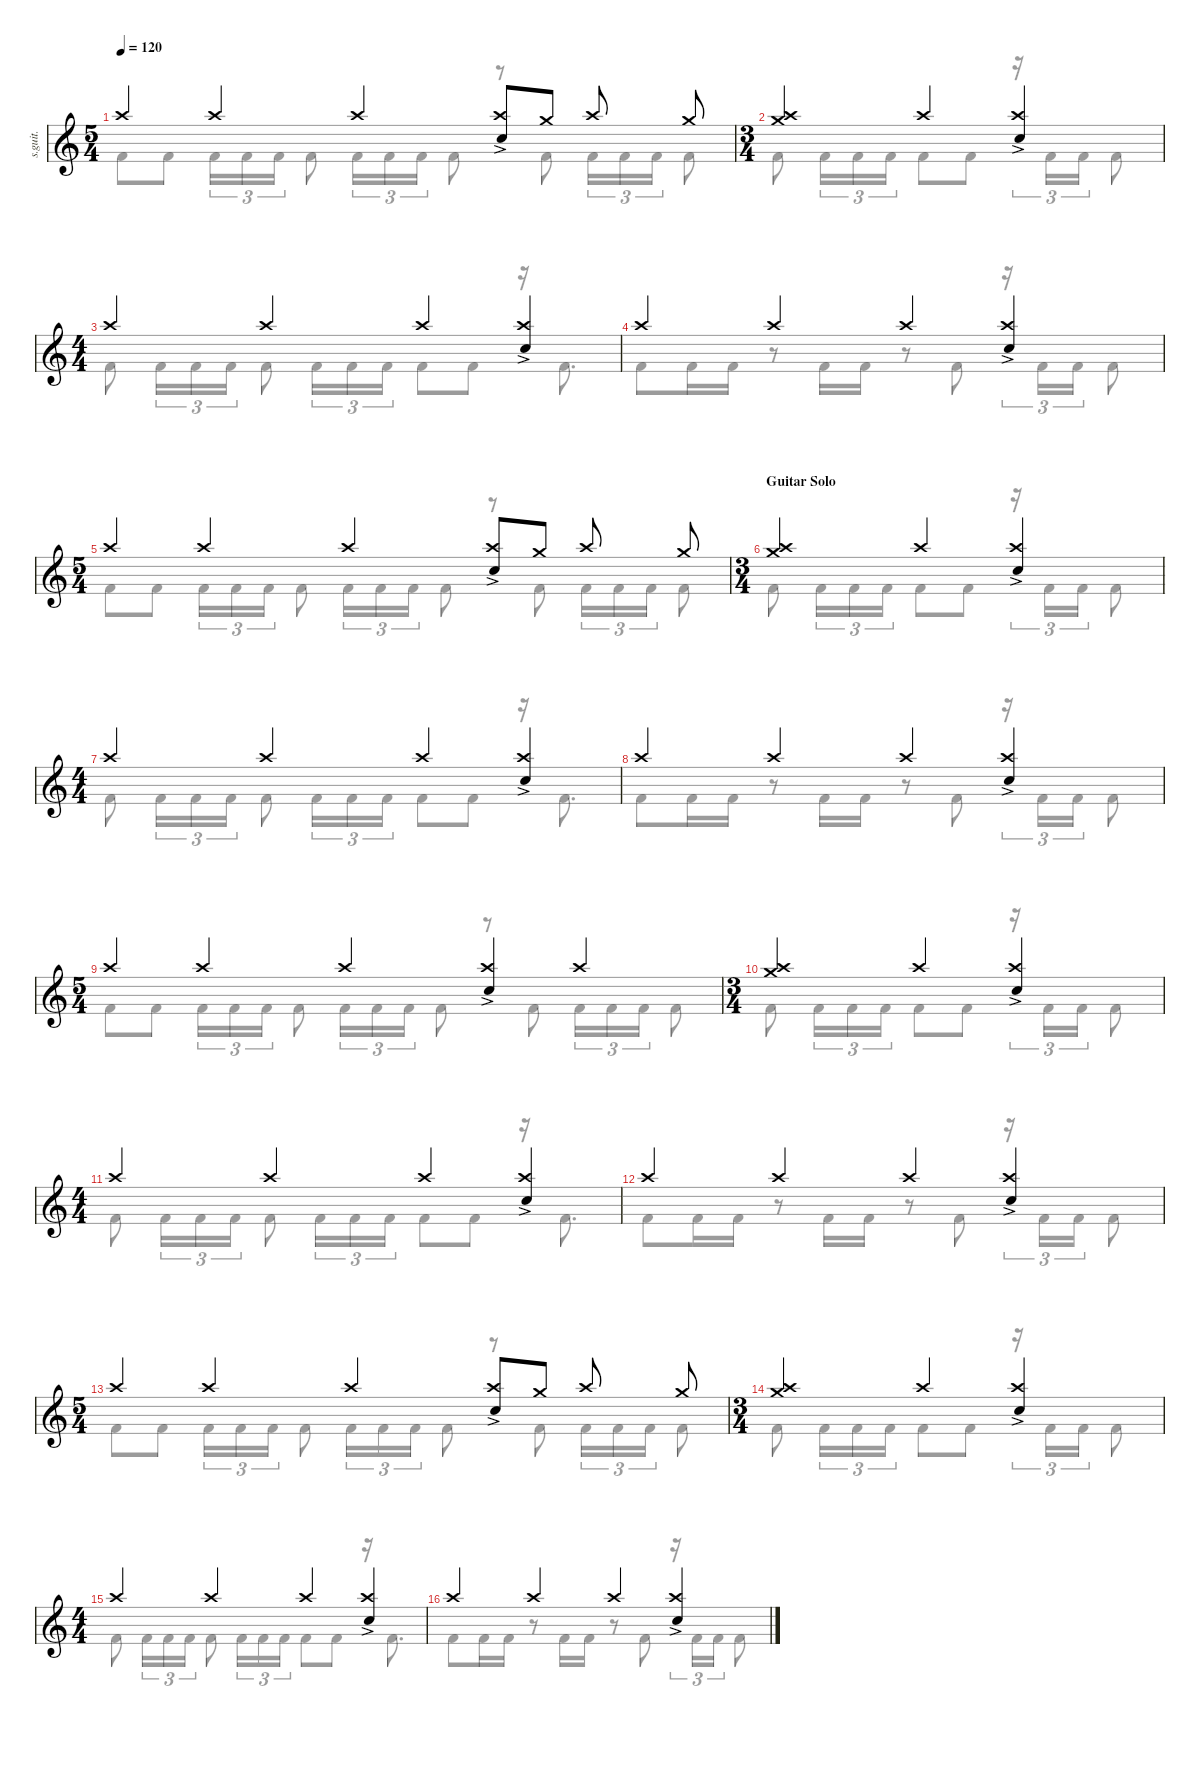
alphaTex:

\defaultSystemsLayout 4
\hideDynamics
\bracketExtendMode nobrackets
\track ("Percussion" "s.guit.") {instrument percussion}
\staff {score}
\articulation defaults
\voice
\ts (5 4)
\beaming (8 2 2 2 2)
\tempo 120
\clef g2
\ks c "Crash high (hit)".4{lyrics (0 "") lyrics (1 "") lyrics (2 "") lyrics (3 "") lyrics (4 "") dy f} "Crash high (hit)".4{lyrics (0 "") lyrics (1 "") lyrics (2 "") lyrics (3 "") lyrics (4 "")} "Crash high (hit)".4{lyrics (0 "") lyrics (1 "") lyrics (2 "") lyrics (3 "") lyrics (4 "")}
("Snare (hit) 2"{ac} "Crash high (hit)").8{lyrics (0 "") lyrics (1 "") lyrics (2 "") lyrics (3 "") lyrics (4 "")} "Crash medium (hit)".8{lyrics (0 "") lyrics (1 "") lyrics (2 "") lyrics (3 "") lyrics (4 "")} "Crash high (hit)".8{lyrics (0 "") lyrics (1 "") lyrics (2 "") lyrics (3 "") lyrics (4 "")} "Crash medium (hit)".8{lyrics (0 "") lyrics (1 "") lyrics (2 "") lyrics (3 "") lyrics (4 "")} |
\ts (3 4)
\beaming (8 2 2 2 2)
("Crash high (hit)" "Crash medium (hit)").4{lyrics (0 "") lyrics (1 "") lyrics (2 "") lyrics (3 "") lyrics (4 "")} "Crash high (hit)".4{lyrics (0 "") lyrics (1 "") lyrics (2 "") lyrics (3 "") lyrics (4 "")} ("Snare (hit) 2"{ac} "Crash high (hit)").4{lyrics (0 "") lyrics (1 "") lyrics (2 "") lyrics (3 "") lyrics (4 "")} |
\ts (4 4)
\beaming (8 2 2 2 2)
"Crash high (hit)".4{lyrics (0 "") lyrics (1 "") lyrics (2 "") lyrics (3 "") lyrics (4 "")} "Crash high (hit)".4{lyrics (0 "") lyrics (1 "") lyrics (2 "") lyrics (3 "") lyrics (4 "")} "Crash high (hit)".4{lyrics (0 "") lyrics (1 "") lyrics (2 "") lyrics (3 "") lyrics (4 "")} ("Snare (hit) 2"{ac} "Crash high (hit)").4{lyrics (0 "") lyrics (1 "") lyrics (2 "") lyrics (3 "") lyrics (4 "")} |
"Crash high (hit)".4{lyrics (0 "") lyrics (1 "") lyrics (2 "") lyrics (3 "") lyrics (4 "")} "Crash high (hit)".4{lyrics (0 "") lyrics (1 "") lyrics (2 "") lyrics (3 "") lyrics (4 "")} "Crash high (hit)".4{lyrics (0 "") lyrics (1 "") lyrics (2 "") lyrics (3 "") lyrics (4 "")} ("Snare (hit) 2"{ac} "Crash high (hit)").4{lyrics (0 "") lyrics (1 "") lyrics (2 "") lyrics (3 "") lyrics (4 "")} |
\ts (5 4)
\beaming (8 2 2 2 2)
"Crash high (hit)".4{lyrics (0 "") lyrics (1 "") lyrics (2 "") lyrics (3 "") lyrics (4 "")} "Crash high (hit)".4{lyrics (0 "") lyrics (1 "") lyrics (2 "") lyrics (3 "") lyrics (4 "")} "Crash high (hit)".4{lyrics (0 "") lyrics (1 "") lyrics (2 "") lyrics (3 "") lyrics (4 "")} ("Snare (hit) 2"{ac} "Crash high (hit)").8{lyrics (0 "") lyrics (1 "") lyrics (2 "") lyrics (3 "") lyrics (4 "")} "Crash medium (hit)".8{lyrics (0 "") lyrics (1 "") lyrics (2 "") lyrics (3 "") lyrics (4 "")} "Crash high (hit)".8{lyrics (0 "") lyrics (1 "") lyrics (2 "") lyrics (3 "") lyrics (4 "")} "Crash medium (hit)".8{lyrics (0 "") lyrics (1 "") lyrics (2 "") lyrics (3 "") lyrics (4 "")} |
\ts (3 4)
\beaming (8 2 2 2 2)
\section ("" "Guitar Solo")
("Crash high (hit)" "Crash medium (hit)").4{lyrics (0 "") lyrics (1 "") lyrics (2 "") lyrics (3 "") lyrics (4 "")} "Crash high (hit)".4{lyrics (0 "") lyrics (1 "") lyrics (2 "") lyrics (3 "") lyrics (4 "")} ("Snare (hit) 2"{ac} "Crash high (hit)").4{lyrics (0 "") lyrics (1 "") lyrics (2 "") lyrics (3 "") lyrics (4 "")} |
\ts (4 4)
\beaming (8 2 2 2 2)
"Crash high (hit)".4{lyrics (0 "") lyrics (1 "") lyrics (2 "") lyrics (3 "") lyrics (4 "")} "Crash high (hit)".4{lyrics (0 "") lyrics (1 "") lyrics (2 "") lyrics (3 "") lyrics (4 "")} "Crash high (hit)".4{lyrics (0 "") lyrics (1 "") lyrics (2 "") lyrics (3 "") lyrics (4 "")} ("Snare (hit) 2"{ac} "Crash high (hit)").4{lyrics (0 "") lyrics (1 "") lyrics (2 "") lyrics (3 "") lyrics (4 "")} |
"Crash high (hit)".4{lyrics (0 "") lyrics (1 "") lyrics (2 "") lyrics (3 "") lyrics (4 "")} "Crash high (hit)".4{lyrics (0 "") lyrics (1 "") lyrics (2 "") lyrics (3 "") lyrics (4 "")} "Crash high (hit)".4{lyrics (0 "") lyrics (1 "") lyrics (2 "") lyrics (3 "") lyrics (4 "")} ("Snare (hit) 2"{ac} "Crash high (hit)").4{lyrics (0 "") lyrics (1 "") lyrics (2 "") lyrics (3 "") lyrics (4 "")} |
\ts (5 4)
\beaming (8 2 2 2 2)
"Crash high (hit)".4{lyrics (0 "") lyrics (1 "") lyrics (2 "") lyrics (3 "") lyrics (4 "")} "Crash high (hit)".4{lyrics (0 "") lyrics (1 "") lyrics (2 "") lyrics (3 "") lyrics (4 "")} "Crash high (hit)".4{lyrics (0 "") lyrics (1 "") lyrics (2 "") lyrics (3 "") lyrics (4 "")} ("Snare (hit) 2"{ac} "Crash high (hit)").4{lyrics (0 "") lyrics (1 "") lyrics (2 "") lyrics (3 "") lyrics (4 "")} "Crash high (hit)".4{lyrics (0 "") lyrics (1 "") lyrics (2 "") lyrics (3 "") lyrics (4 "")} |
\ts (3 4)
\beaming (8 2 2 2 2)
("Crash high (hit)" "Crash medium (hit)").4{lyrics (0 "") lyrics (1 "") lyrics (2 "") lyrics (3 "") lyrics (4 "")} "Crash high (hit)".4{lyrics (0 "") lyrics (1 "") lyrics (2 "") lyrics (3 "") lyrics (4 "")} ("Snare (hit) 2"{ac} "Crash high (hit)").4{lyrics (0 "") lyrics (1 "") lyrics (2 "") lyrics (3 "") lyrics (4 "")} |
\ts (4 4)
\beaming (8 2 2 2 2)
"Crash high (hit)".4{lyrics (0 "") lyrics (1 "") lyrics (2 "") lyrics (3 "") lyrics (4 "")} "Crash high (hit)".4{lyrics (0 "") lyrics (1 "") lyrics (2 "") lyrics (3 "") lyrics (4 "")} "Crash high (hit)".4{lyrics (0 "") lyrics (1 "") lyrics (2 "") lyrics (3 "") lyrics (4 "")} ("Snare (hit) 2"{ac} "Crash high (hit)").4{lyrics (0 "") lyrics (1 "") lyrics (2 "") lyrics (3 "") lyrics (4 "")} |
"Crash high (hit)".4{lyrics (0 "") lyrics (1 "") lyrics (2 "") lyrics (3 "") lyrics (4 "")} "Crash high (hit)".4{lyrics (0 "") lyrics (1 "") lyrics (2 "") lyrics (3 "") lyrics (4 "")} "Crash high (hit)".4{lyrics (0 "") lyrics (1 "") lyrics (2 "") lyrics (3 "") lyrics (4 "")} ("Snare (hit) 2"{ac} "Crash high (hit)").4{lyrics (0 "") lyrics (1 "") lyrics (2 "") lyrics (3 "") lyrics (4 "")} |
\ts (5 4)
\beaming (8 2 2 2 2)
"Crash high (hit)".4{lyrics (0 "") lyrics (1 "") lyrics (2 "") lyrics (3 "") lyrics (4 "")} "Crash high (hit)".4{lyrics (0 "") lyrics (1 "") lyrics (2 "") lyrics (3 "") lyrics (4 "")} "Crash high (hit)".4{lyrics (0 "") lyrics (1 "") lyrics (2 "") lyrics (3 "") lyrics (4 "")} ("Snare (hit) 2"{ac} "Crash high (hit)").8{lyrics (0 "") lyrics (1 "") lyrics (2 "") lyrics (3 "") lyrics (4 "")} "Crash medium (hit)".8{lyrics (0 "") lyrics (1 "") lyrics (2 "") lyrics (3 "") lyrics (4 "")} "Crash high (hit)".8{lyrics (0 "") lyrics (1 "") lyrics (2 "") lyrics (3 "") lyrics (4 "")} "Crash medium (hit)".8{lyrics (0 "") lyrics (1 "") lyrics (2 "") lyrics (3 "") lyrics (4 "")} |
\ts (3 4)
\beaming (8 2 2 2 2)
("Crash high (hit)" "Crash medium (hit)").4{lyrics (0 "") lyrics (1 "") lyrics (2 "") lyrics (3 "") lyrics (4 "")} "Crash high (hit)".4{lyrics (0 "") lyrics (1 "") lyrics (2 "") lyrics (3 "") lyrics (4 "")} ("Snare (hit) 2"{ac} "Crash high (hit)").4{lyrics (0 "") lyrics (1 "") lyrics (2 "") lyrics (3 "") lyrics (4 "")} |
\ts (4 4)
\beaming (8 2 2 2 2)
"Crash high (hit)".4{lyrics (0 "") lyrics (1 "") lyrics (2 "") lyrics (3 "") lyrics (4 "")} "Crash high (hit)".4{lyrics (0 "") lyrics (1 "") lyrics (2 "") lyrics (3 "") lyrics (4 "")} "Crash high (hit)".4{lyrics (0 "") lyrics (1 "") lyrics (2 "") lyrics (3 "") lyrics (4 "")} ("Snare (hit) 2"{ac} "Crash high (hit)").4{lyrics (0 "") lyrics (1 "") lyrics (2 "") lyrics (3 "") lyrics (4 "")} |
"Crash high (hit)".4{lyrics (0 "") lyrics (1 "") lyrics (2 "") lyrics (3 "") lyrics (4 "")} "Crash high (hit)".4{lyrics (0 "") lyrics (1 "") lyrics (2 "") lyrics (3 "") lyrics (4 "")} "Crash high (hit)".4{lyrics (0 "") lyrics (1 "") lyrics (2 "") lyrics (3 "") lyrics (4 "")} ("Snare (hit) 2"{ac} "Crash high (hit)").4{lyrics (0 "") lyrics (1 "") lyrics (2 "") lyrics (3 "") lyrics (4 "")}
\voice
\clef g2
\ottava regular
\simile none
\ks c "Kick (hit) 2".8{lyrics (0 "") lyrics (1 "") lyrics (2 "") lyrics (3 "") lyrics (4 "") dy f} "Kick (hit) 2".8{lyrics (0 "") lyrics (1 "") lyrics (2 "") lyrics (3 "") lyrics (4 "")} "Kick (hit) 2".16{tu (3 2) lyrics (0 "") lyrics (1 "") lyrics (2 "") lyrics (3 "") lyrics (4 "")} "Kick (hit) 2".16{tu (3 2) lyrics (0 "") lyrics (1 "") lyrics (2 "") lyrics (3 "") lyrics (4 "")} "Kick (hit) 2".16{tu (3 2) lyrics (0 "") lyrics (1 "") lyrics (2 "") lyrics (3 "") lyrics (4 "")} "Kick (hit) 2".8{lyrics (0 "") lyrics (1 "") lyrics (2 "") lyrics (3 "") lyrics (4 "")} "Kick (hit) 2".16{tu (3 2) lyrics (0 "") lyrics (1 "") lyrics (2 "") lyrics (3 "") lyrics (4 "")} "Kick (hit) 2".16{tu (3 2) lyrics (0 "") lyrics (1 "") lyrics (2 "") lyrics (3 "") lyrics (4 "")} "Kick (hit) 2".16{tu (3 2) lyrics (0 "") lyrics (1 "") lyrics (2 "") lyrics (3 "") lyrics (4 "")} "Kick (hit) 2".8{lyrics (0 "") lyrics (1 "") lyrics (2 "") lyrics (3 "") lyrics (4 "")}
r.8 "Kick (hit) 2".8{lyrics (0 "") lyrics (1 "") lyrics (2 "") lyrics (3 "") lyrics (4 "")} "Kick (hit) 2".16{tu (3 2) lyrics (0 "") lyrics (1 "") lyrics (2 "") lyrics (3 "") lyrics (4 "")} "Kick (hit) 2".16{tu (3 2) lyrics (0 "") lyrics (1 "") lyrics (2 "") lyrics (3 "") lyrics (4 "")} "Kick (hit) 2".16{tu (3 2) lyrics (0 "") lyrics (1 "") lyrics (2 "") lyrics (3 "") lyrics (4 "")} "Kick (hit) 2".8{lyrics (0 "") lyrics (1 "") lyrics (2 "") lyrics (3 "") lyrics (4 "")} |
"Kick (hit) 2".8{lyrics (0 "") lyrics (1 "") lyrics (2 "") lyrics (3 "") lyrics (4 "")} "Kick (hit) 2".16{tu (3 2) lyrics (0 "") lyrics (1 "") lyrics (2 "") lyrics (3 "") lyrics (4 "")} "Kick (hit) 2".16{tu (3 2) lyrics (0 "") lyrics (1 "") lyrics (2 "") lyrics (3 "") lyrics (4 "")} "Kick (hit) 2".16{tu (3 2) lyrics (0 "") lyrics (1 "") lyrics (2 "") lyrics (3 "") lyrics (4 "")} "Kick (hit) 2".8{lyrics (0 "") lyrics (1 "") lyrics (2 "") lyrics (3 "") lyrics (4 "")} "Kick (hit) 2".8{lyrics (0 "") lyrics (1 "") lyrics (2 "") lyrics (3 "") lyrics (4 "")} r.16{tu (3 2)} "Kick (hit) 2".16{tu (3 2) lyrics (0 "") lyrics (1 "") lyrics (2 "") lyrics (3 "") lyrics (4 "")} "Kick (hit) 2".16{tu (3 2) lyrics (0 "") lyrics (1 "") lyrics (2 "") lyrics (3 "") lyrics (4 "")} "Kick (hit) 2".8{lyrics (0 "") lyrics (1 "") lyrics (2 "") lyrics (3 "") lyrics (4 "")} |
"Kick (hit) 2".8{lyrics (0 "") lyrics (1 "") lyrics (2 "") lyrics (3 "") lyrics (4 "")} "Kick (hit) 2".16{tu (3 2) lyrics (0 "") lyrics (1 "") lyrics (2 "") lyrics (3 "") lyrics (4 "")} "Kick (hit) 2".16{tu (3 2) lyrics (0 "") lyrics (1 "") lyrics (2 "") lyrics (3 "") lyrics (4 "")} "Kick (hit) 2".16{tu (3 2) lyrics (0 "") lyrics (1 "") lyrics (2 "") lyrics (3 "") lyrics (4 "")} "Kick (hit) 2".8{lyrics (0 "") lyrics (1 "") lyrics (2 "") lyrics (3 "") lyrics (4 "")} "Kick (hit) 2".16{tu (3 2) lyrics (0 "") lyrics (1 "") lyrics (2 "") lyrics (3 "") lyrics (4 "")} "Kick (hit) 2".16{tu (3 2) lyrics (0 "") lyrics (1 "") lyrics (2 "") lyrics (3 "") lyrics (4 "")} "Kick (hit) 2".16{tu (3 2) lyrics (0 "") lyrics (1 "") lyrics (2 "") lyrics (3 "") lyrics (4 "")} "Kick (hit) 2".8{lyrics (0 "") lyrics (1 "") lyrics (2 "") lyrics (3 "") lyrics (4 "")} "Kick (hit) 2".8{lyrics (0 "") lyrics (1 "") lyrics (2 "") lyrics (3 "") lyrics (4 "")} r.16 "Kick (hit) 2".8{d lyrics (0 "") lyrics (1 "") lyrics (2 "") lyrics (3 "") lyrics (4 "")} |
"Kick (hit) 2".8{lyrics (0 "") lyrics (1 "") lyrics (2 "") lyrics (3 "") lyrics (4 "")} "Kick (hit) 2".16{lyrics (0 "") lyrics (1 "") lyrics (2 "") lyrics (3 "") lyrics (4 "")} "Kick (hit) 2".16{lyrics (0 "") lyrics (1 "") lyrics (2 "") lyrics (3 "") lyrics (4 "")} r.8 "Kick (hit) 2".16{lyrics (0 "") lyrics (1 "") lyrics (2 "") lyrics (3 "") lyrics (4 "")} "Kick (hit) 2".16{lyrics (0 "") lyrics (1 "") lyrics (2 "") lyrics (3 "") lyrics (4 "")} r.8 "Kick (hit) 2".8{lyrics (0 "") lyrics (1 "") lyrics (2 "") lyrics (3 "") lyrics (4 "")} r.16{tu (3 2)} "Kick (hit) 2".16{tu (3 2) lyrics (0 "") lyrics (1 "") lyrics (2 "") lyrics (3 "") lyrics (4 "")} "Kick (hit) 2".16{tu (3 2) lyrics (0 "") lyrics (1 "") lyrics (2 "") lyrics (3 "") lyrics (4 "")} "Kick (hit) 2".8{lyrics (0 "") lyrics (1 "") lyrics (2 "") lyrics (3 "") lyrics (4 "")} |
"Kick (hit) 2".8{lyrics (0 "") lyrics (1 "") lyrics (2 "") lyrics (3 "") lyrics (4 "")} "Kick (hit) 2".8{lyrics (0 "") lyrics (1 "") lyrics (2 "") lyrics (3 "") lyrics (4 "")} "Kick (hit) 2".16{tu (3 2) lyrics (0 "") lyrics (1 "") lyrics (2 "") lyrics (3 "") lyrics (4 "")} "Kick (hit) 2".16{tu (3 2) lyrics (0 "") lyrics (1 "") lyrics (2 "") lyrics (3 "") lyrics (4 "")} "Kick (hit) 2".16{tu (3 2) lyrics (0 "") lyrics (1 "") lyrics (2 "") lyrics (3 "") lyrics (4 "")} "Kick (hit) 2".8{lyrics (0 "") lyrics (1 "") lyrics (2 "") lyrics (3 "") lyrics (4 "")} "Kick (hit) 2".16{tu (3 2) lyrics (0 "") lyrics (1 "") lyrics (2 "") lyrics (3 "") lyrics (4 "")} "Kick (hit) 2".16{tu (3 2) lyrics (0 "") lyrics (1 "") lyrics (2 "") lyrics (3 "") lyrics (4 "")} "Kick (hit) 2".16{tu (3 2) lyrics (0 "") lyrics (1 "") lyrics (2 "") lyrics (3 "") lyrics (4 "")} "Kick (hit) 2".8{lyrics (0 "") lyrics (1 "") lyrics (2 "") lyrics (3 "") lyrics (4 "")} r.8 "Kick (hit) 2".8{lyrics (0 "") lyrics (1 "") lyrics (2 "") lyrics (3 "") lyrics (4 "")} "Kick (hit) 2".16{tu (3 2) lyrics (0 "") lyrics (1 "") lyrics (2 "") lyrics (3 "") lyrics (4 "")} "Kick (hit) 2".16{tu (3 2) lyrics (0 "") lyrics (1 "") lyrics (2 "") lyrics (3 "") lyrics (4 "")} "Kick (hit) 2".16{tu (3 2) lyrics (0 "") lyrics (1 "") lyrics (2 "") lyrics (3 "") lyrics (4 "")} "Kick (hit) 2".8{lyrics (0 "") lyrics (1 "") lyrics (2 "") lyrics (3 "") lyrics (4 "")} |
"Kick (hit) 2".8{lyrics (0 "") lyrics (1 "") lyrics (2 "") lyrics (3 "") lyrics (4 "")} "Kick (hit) 2".16{tu (3 2) lyrics (0 "") lyrics (1 "") lyrics (2 "") lyrics (3 "") lyrics (4 "")} "Kick (hit) 2".16{tu (3 2) lyrics (0 "") lyrics (1 "") lyrics (2 "") lyrics (3 "") lyrics (4 "")} "Kick (hit) 2".16{tu (3 2) lyrics (0 "") lyrics (1 "") lyrics (2 "") lyrics (3 "") lyrics (4 "")} "Kick (hit) 2".8{lyrics (0 "") lyrics (1 "") lyrics (2 "") lyrics (3 "") lyrics (4 "")} "Kick (hit) 2".8{lyrics (0 "") lyrics (1 "") lyrics (2 "") lyrics (3 "") lyrics (4 "")} r.16{tu (3 2)} "Kick (hit) 2".16{tu (3 2) lyrics (0 "") lyrics (1 "") lyrics (2 "") lyrics (3 "") lyrics (4 "")} "Kick (hit) 2".16{tu (3 2) lyrics (0 "") lyrics (1 "") lyrics (2 "") lyrics (3 "") lyrics (4 "")} "Kick (hit) 2".8{lyrics (0 "") lyrics (1 "") lyrics (2 "") lyrics (3 "") lyrics (4 "")} |
"Kick (hit) 2".8{lyrics (0 "") lyrics (1 "") lyrics (2 "") lyrics (3 "") lyrics (4 "")} "Kick (hit) 2".16{tu (3 2) lyrics (0 "") lyrics (1 "") lyrics (2 "") lyrics (3 "") lyrics (4 "")} "Kick (hit) 2".16{tu (3 2) lyrics (0 "") lyrics (1 "") lyrics (2 "") lyrics (3 "") lyrics (4 "")} "Kick (hit) 2".16{tu (3 2) lyrics (0 "") lyrics (1 "") lyrics (2 "") lyrics (3 "") lyrics (4 "")} "Kick (hit) 2".8{lyrics (0 "") lyrics (1 "") lyrics (2 "") lyrics (3 "") lyrics (4 "")} "Kick (hit) 2".16{tu (3 2) lyrics (0 "") lyrics (1 "") lyrics (2 "") lyrics (3 "") lyrics (4 "")} "Kick (hit) 2".16{tu (3 2) lyrics (0 "") lyrics (1 "") lyrics (2 "") lyrics (3 "") lyrics (4 "")} "Kick (hit) 2".16{tu (3 2) lyrics (0 "") lyrics (1 "") lyrics (2 "") lyrics (3 "") lyrics (4 "")} "Kick (hit) 2".8{lyrics (0 "") lyrics (1 "") lyrics (2 "") lyrics (3 "") lyrics (4 "")} "Kick (hit) 2".8{lyrics (0 "") lyrics (1 "") lyrics (2 "") lyrics (3 "") lyrics (4 "")} r.16 "Kick (hit) 2".8{d lyrics (0 "") lyrics (1 "") lyrics (2 "") lyrics (3 "") lyrics (4 "")} |
"Kick (hit) 2".8{lyrics (0 "") lyrics (1 "") lyrics (2 "") lyrics (3 "") lyrics (4 "")} "Kick (hit) 2".16{lyrics (0 "") lyrics (1 "") lyrics (2 "") lyrics (3 "") lyrics (4 "")} "Kick (hit) 2".16{lyrics (0 "") lyrics (1 "") lyrics (2 "") lyrics (3 "") lyrics (4 "")} r.8 "Kick (hit) 2".16{lyrics (0 "") lyrics (1 "") lyrics (2 "") lyrics (3 "") lyrics (4 "")} "Kick (hit) 2".16{lyrics (0 "") lyrics (1 "") lyrics (2 "") lyrics (3 "") lyrics (4 "")} r.8 "Kick (hit) 2".8{lyrics (0 "") lyrics (1 "") lyrics (2 "") lyrics (3 "") lyrics (4 "")} r.16{tu (3 2)} "Kick (hit) 2".16{tu (3 2) lyrics (0 "") lyrics (1 "") lyrics (2 "") lyrics (3 "") lyrics (4 "")} "Kick (hit) 2".16{tu (3 2) lyrics (0 "") lyrics (1 "") lyrics (2 "") lyrics (3 "") lyrics (4 "")} "Kick (hit) 2".8{lyrics (0 "") lyrics (1 "") lyrics (2 "") lyrics (3 "") lyrics (4 "")} |
"Kick (hit) 2".8{lyrics (0 "") lyrics (1 "") lyrics (2 "") lyrics (3 "") lyrics (4 "")} "Kick (hit) 2".8{lyrics (0 "") lyrics (1 "") lyrics (2 "") lyrics (3 "") lyrics (4 "")} "Kick (hit) 2".16{tu (3 2) lyrics (0 "") lyrics (1 "") lyrics (2 "") lyrics (3 "") lyrics (4 "")} "Kick (hit) 2".16{tu (3 2) lyrics (0 "") lyrics (1 "") lyrics (2 "") lyrics (3 "") lyrics (4 "")} "Kick (hit) 2".16{tu (3 2) lyrics (0 "") lyrics (1 "") lyrics (2 "") lyrics (3 "") lyrics (4 "")} "Kick (hit) 2".8{lyrics (0 "") lyrics (1 "") lyrics (2 "") lyrics (3 "") lyrics (4 "")} "Kick (hit) 2".16{tu (3 2) lyrics (0 "") lyrics (1 "") lyrics (2 "") lyrics (3 "") lyrics (4 "")} "Kick (hit) 2".16{tu (3 2) lyrics (0 "") lyrics (1 "") lyrics (2 "") lyrics (3 "") lyrics (4 "")} "Kick (hit) 2".16{tu (3 2) lyrics (0 "") lyrics (1 "") lyrics (2 "") lyrics (3 "") lyrics (4 "")} "Kick (hit) 2".8{lyrics (0 "") lyrics (1 "") lyrics (2 "") lyrics (3 "") lyrics (4 "")} r.8 "Kick (hit) 2".8{lyrics (0 "") lyrics (1 "") lyrics (2 "") lyrics (3 "") lyrics (4 "")} "Kick (hit) 2".16{tu (3 2) lyrics (0 "") lyrics (1 "") lyrics (2 "") lyrics (3 "") lyrics (4 "")} "Kick (hit) 2".16{tu (3 2) lyrics (0 "") lyrics (1 "") lyrics (2 "") lyrics (3 "") lyrics (4 "")} "Kick (hit) 2".16{tu (3 2) lyrics (0 "") lyrics (1 "") lyrics (2 "") lyrics (3 "") lyrics (4 "")} "Kick (hit) 2".8{lyrics (0 "") lyrics (1 "") lyrics (2 "") lyrics (3 "") lyrics (4 "")} |
"Kick (hit) 2".8{lyrics (0 "") lyrics (1 "") lyrics (2 "") lyrics (3 "") lyrics (4 "")} "Kick (hit) 2".16{tu (3 2) lyrics (0 "") lyrics (1 "") lyrics (2 "") lyrics (3 "") lyrics (4 "")} "Kick (hit) 2".16{tu (3 2) lyrics (0 "") lyrics (1 "") lyrics (2 "") lyrics (3 "") lyrics (4 "")} "Kick (hit) 2".16{tu (3 2) lyrics (0 "") lyrics (1 "") lyrics (2 "") lyrics (3 "") lyrics (4 "")} "Kick (hit) 2".8{lyrics (0 "") lyrics (1 "") lyrics (2 "") lyrics (3 "") lyrics (4 "")} "Kick (hit) 2".8{lyrics (0 "") lyrics (1 "") lyrics (2 "") lyrics (3 "") lyrics (4 "")} r.16{tu (3 2)} "Kick (hit) 2".16{tu (3 2) lyrics (0 "") lyrics (1 "") lyrics (2 "") lyrics (3 "") lyrics (4 "")} "Kick (hit) 2".16{tu (3 2) lyrics (0 "") lyrics (1 "") lyrics (2 "") lyrics (3 "") lyrics (4 "")} "Kick (hit) 2".8{lyrics (0 "") lyrics (1 "") lyrics (2 "") lyrics (3 "") lyrics (4 "")} |
"Kick (hit) 2".8{lyrics (0 "") lyrics (1 "") lyrics (2 "") lyrics (3 "") lyrics (4 "")} "Kick (hit) 2".16{tu (3 2) lyrics (0 "") lyrics (1 "") lyrics (2 "") lyrics (3 "") lyrics (4 "")} "Kick (hit) 2".16{tu (3 2) lyrics (0 "") lyrics (1 "") lyrics (2 "") lyrics (3 "") lyrics (4 "")} "Kick (hit) 2".16{tu (3 2) lyrics (0 "") lyrics (1 "") lyrics (2 "") lyrics (3 "") lyrics (4 "")} "Kick (hit) 2".8{lyrics (0 "") lyrics (1 "") lyrics (2 "") lyrics (3 "") lyrics (4 "")} "Kick (hit) 2".16{tu (3 2) lyrics (0 "") lyrics (1 "") lyrics (2 "") lyrics (3 "") lyrics (4 "")} "Kick (hit) 2".16{tu (3 2) lyrics (0 "") lyrics (1 "") lyrics (2 "") lyrics (3 "") lyrics (4 "")} "Kick (hit) 2".16{tu (3 2) lyrics (0 "") lyrics (1 "") lyrics (2 "") lyrics (3 "") lyrics (4 "")} "Kick (hit) 2".8{lyrics (0 "") lyrics (1 "") lyrics (2 "") lyrics (3 "") lyrics (4 "")} "Kick (hit) 2".8{lyrics (0 "") lyrics (1 "") lyrics (2 "") lyrics (3 "") lyrics (4 "")} r.16 "Kick (hit) 2".8{d lyrics (0 "") lyrics (1 "") lyrics (2 "") lyrics (3 "") lyrics (4 "")} |
"Kick (hit) 2".8{lyrics (0 "") lyrics (1 "") lyrics (2 "") lyrics (3 "") lyrics (4 "")} "Kick (hit) 2".16{lyrics (0 "") lyrics (1 "") lyrics (2 "") lyrics (3 "") lyrics (4 "")} "Kick (hit) 2".16{lyrics (0 "") lyrics (1 "") lyrics (2 "") lyrics (3 "") lyrics (4 "")} r.8 "Kick (hit) 2".16{lyrics (0 "") lyrics (1 "") lyrics (2 "") lyrics (3 "") lyrics (4 "")} "Kick (hit) 2".16{lyrics (0 "") lyrics (1 "") lyrics (2 "") lyrics (3 "") lyrics (4 "")} r.8 "Kick (hit) 2".8{lyrics (0 "") lyrics (1 "") lyrics (2 "") lyrics (3 "") lyrics (4 "")} r.16{tu (3 2)} "Kick (hit) 2".16{tu (3 2) lyrics (0 "") lyrics (1 "") lyrics (2 "") lyrics (3 "") lyrics (4 "")} "Kick (hit) 2".16{tu (3 2) lyrics (0 "") lyrics (1 "") lyrics (2 "") lyrics (3 "") lyrics (4 "")} "Kick (hit) 2".8{lyrics (0 "") lyrics (1 "") lyrics (2 "") lyrics (3 "") lyrics (4 "")} |
"Kick (hit) 2".8{lyrics (0 "") lyrics (1 "") lyrics (2 "") lyrics (3 "") lyrics (4 "")} "Kick (hit) 2".8{lyrics (0 "") lyrics (1 "") lyrics (2 "") lyrics (3 "") lyrics (4 "")} "Kick (hit) 2".16{tu (3 2) lyrics (0 "") lyrics (1 "") lyrics (2 "") lyrics (3 "") lyrics (4 "")} "Kick (hit) 2".16{tu (3 2) lyrics (0 "") lyrics (1 "") lyrics (2 "") lyrics (3 "") lyrics (4 "")} "Kick (hit) 2".16{tu (3 2) lyrics (0 "") lyrics (1 "") lyrics (2 "") lyrics (3 "") lyrics (4 "")} "Kick (hit) 2".8{lyrics (0 "") lyrics (1 "") lyrics (2 "") lyrics (3 "") lyrics (4 "")} "Kick (hit) 2".16{tu (3 2) lyrics (0 "") lyrics (1 "") lyrics (2 "") lyrics (3 "") lyrics (4 "")} "Kick (hit) 2".16{tu (3 2) lyrics (0 "") lyrics (1 "") lyrics (2 "") lyrics (3 "") lyrics (4 "")} "Kick (hit) 2".16{tu (3 2) lyrics (0 "") lyrics (1 "") lyrics (2 "") lyrics (3 "") lyrics (4 "")} "Kick (hit) 2".8{lyrics (0 "") lyrics (1 "") lyrics (2 "") lyrics (3 "") lyrics (4 "")} r.8 "Kick (hit) 2".8{lyrics (0 "") lyrics (1 "") lyrics (2 "") lyrics (3 "") lyrics (4 "")} "Kick (hit) 2".16{tu (3 2) lyrics (0 "") lyrics (1 "") lyrics (2 "") lyrics (3 "") lyrics (4 "")} "Kick (hit) 2".16{tu (3 2) lyrics (0 "") lyrics (1 "") lyrics (2 "") lyrics (3 "") lyrics (4 "")} "Kick (hit) 2".16{tu (3 2) lyrics (0 "") lyrics (1 "") lyrics (2 "") lyrics (3 "") lyrics (4 "")} "Kick (hit) 2".8{lyrics (0 "") lyrics (1 "") lyrics (2 "") lyrics (3 "") lyrics (4 "")} |
"Kick (hit) 2".8{lyrics (0 "") lyrics (1 "") lyrics (2 "") lyrics (3 "") lyrics (4 "")} "Kick (hit) 2".16{tu (3 2) lyrics (0 "") lyrics (1 "") lyrics (2 "") lyrics (3 "") lyrics (4 "")} "Kick (hit) 2".16{tu (3 2) lyrics (0 "") lyrics (1 "") lyrics (2 "") lyrics (3 "") lyrics (4 "")} "Kick (hit) 2".16{tu (3 2) lyrics (0 "") lyrics (1 "") lyrics (2 "") lyrics (3 "") lyrics (4 "")} "Kick (hit) 2".8{lyrics (0 "") lyrics (1 "") lyrics (2 "") lyrics (3 "") lyrics (4 "")} "Kick (hit) 2".8{lyrics (0 "") lyrics (1 "") lyrics (2 "") lyrics (3 "") lyrics (4 "")} r.16{tu (3 2)} "Kick (hit) 2".16{tu (3 2) lyrics (0 "") lyrics (1 "") lyrics (2 "") lyrics (3 "") lyrics (4 "")} "Kick (hit) 2".16{tu (3 2) lyrics (0 "") lyrics (1 "") lyrics (2 "") lyrics (3 "") lyrics (4 "")} "Kick (hit) 2".8{lyrics (0 "") lyrics (1 "") lyrics (2 "") lyrics (3 "") lyrics (4 "")} |
"Kick (hit) 2".8{lyrics (0 "") lyrics (1 "") lyrics (2 "") lyrics (3 "") lyrics (4 "")} "Kick (hit) 2".16{tu (3 2) lyrics (0 "") lyrics (1 "") lyrics (2 "") lyrics (3 "") lyrics (4 "")} "Kick (hit) 2".16{tu (3 2) lyrics (0 "") lyrics (1 "") lyrics (2 "") lyrics (3 "") lyrics (4 "")} "Kick (hit) 2".16{tu (3 2) lyrics (0 "") lyrics (1 "") lyrics (2 "") lyrics (3 "") lyrics (4 "")} "Kick (hit) 2".8{lyrics (0 "") lyrics (1 "") lyrics (2 "") lyrics (3 "") lyrics (4 "")} "Kick (hit) 2".16{tu (3 2) lyrics (0 "") lyrics (1 "") lyrics (2 "") lyrics (3 "") lyrics (4 "")} "Kick (hit) 2".16{tu (3 2) lyrics (0 "") lyrics (1 "") lyrics (2 "") lyrics (3 "") lyrics (4 "")} "Kick (hit) 2".16{tu (3 2) lyrics (0 "") lyrics (1 "") lyrics (2 "") lyrics (3 "") lyrics (4 "")} "Kick (hit) 2".8{lyrics (0 "") lyrics (1 "") lyrics (2 "") lyrics (3 "") lyrics (4 "")} "Kick (hit) 2".8{lyrics (0 "") lyrics (1 "") lyrics (2 "") lyrics (3 "") lyrics (4 "")} r.16 "Kick (hit) 2".8{d lyrics (0 "") lyrics (1 "") lyrics (2 "") lyrics (3 "") lyrics (4 "")} |
"Kick (hit) 2".8{lyrics (0 "") lyrics (1 "") lyrics (2 "") lyrics (3 "") lyrics (4 "")} "Kick (hit) 2".16{lyrics (0 "") lyrics (1 "") lyrics (2 "") lyrics (3 "") lyrics (4 "")} "Kick (hit) 2".16{lyrics (0 "") lyrics (1 "") lyrics (2 "") lyrics (3 "") lyrics (4 "")} r.8 "Kick (hit) 2".16{lyrics (0 "") lyrics (1 "") lyrics (2 "") lyrics (3 "") lyrics (4 "")} "Kick (hit) 2".16{lyrics (0 "") lyrics (1 "") lyrics (2 "") lyrics (3 "") lyrics (4 "")} r.8 "Kick (hit) 2".8{lyrics (0 "") lyrics (1 "") lyrics (2 "") lyrics (3 "") lyrics (4 "")} r.16{tu (3 2)} "Kick (hit) 2".16{tu (3 2) lyrics (0 "") lyrics (1 "") lyrics (2 "") lyrics (3 "") lyrics (4 "")} "Kick (hit) 2".16{tu (3 2) lyrics (0 "") lyrics (1 "") lyrics (2 "") lyrics (3 "") lyrics (4 "")} "Kick (hit) 2".8{lyrics (0 "") lyrics (1 "") lyrics (2 "") lyrics (3 "") lyrics (4 "")}
